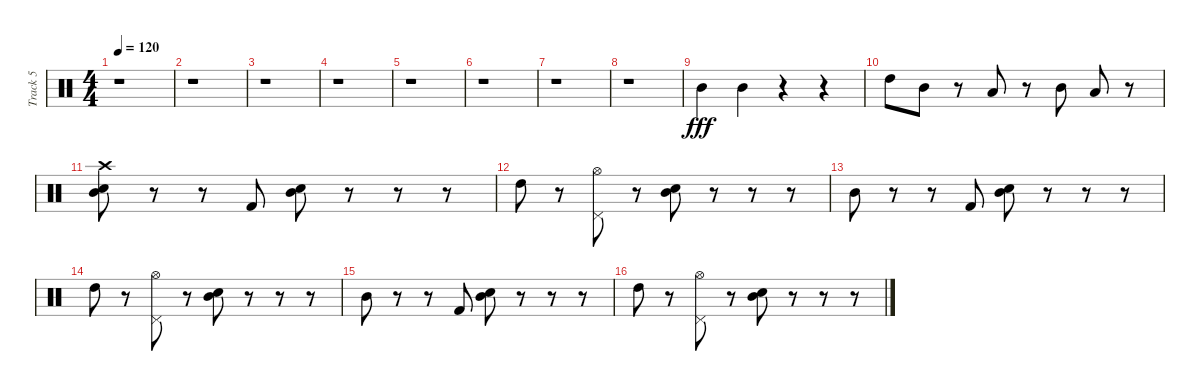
\track ("Track 5" "Track 5") {instrument percussion}
\staff {score}
\articulation defaults
\ts (4 4)
\tempo 120
\clef neutral
\ks c
r.1{dy fff} |
r.1 |
r.1 |
r.1 |
r.1 |
r.1 |
r.1 |
r.1 |
"Mid Tom (hit)".4 "Mid Tom (hit)".4 r.4 r.4 |
"High Tom (hit)".8 "Mid Tom (hit)".8 r.8 "Low Tom (hit)".8 r.8 "Mid Tom (hit)".8 "Low Tom (hit)".8 r.8 |
("Crash high (hit)" "Mid Tom (hit)" "Snare (hit) 2").8 r.8 r.8 "Kick (hit) 2".8 ("Mid Tom (hit)" "Snare (hit) 2").8 r.8 r.8 r.8 |
"High Tom (hit)".8 r.8 ("Hi-Hat (open)" "Pedal Hi-Hat (hit)").8 r.8 ("Mid Tom (hit)" "Snare (hit) 2").8 r.8 r.8 r.8 |
"Mid Tom (hit)".8 r.8 r.8 "Kick (hit) 2".8 ("Mid Tom (hit)" "Snare (hit) 2").8 r.8 r.8 r.8 |
"High Tom (hit)".8 r.8 ("Hi-Hat (open)" "Pedal Hi-Hat (hit)").8 r.8 ("Mid Tom (hit)" "Snare (hit) 2").8 r.8 r.8 r.8 |
"Mid Tom (hit)".8 r.8 r.8 "Kick (hit) 2".8 ("Mid Tom (hit)" "Snare (hit) 2").8 r.8 r.8 r.8 |
"High Tom (hit)".8 r.8 ("Hi-Hat (open)" "Pedal Hi-Hat (hit)").8 r.8 ("Mid Tom (hit)" "Snare (hit) 2").8 r.8 r.8 r.8
